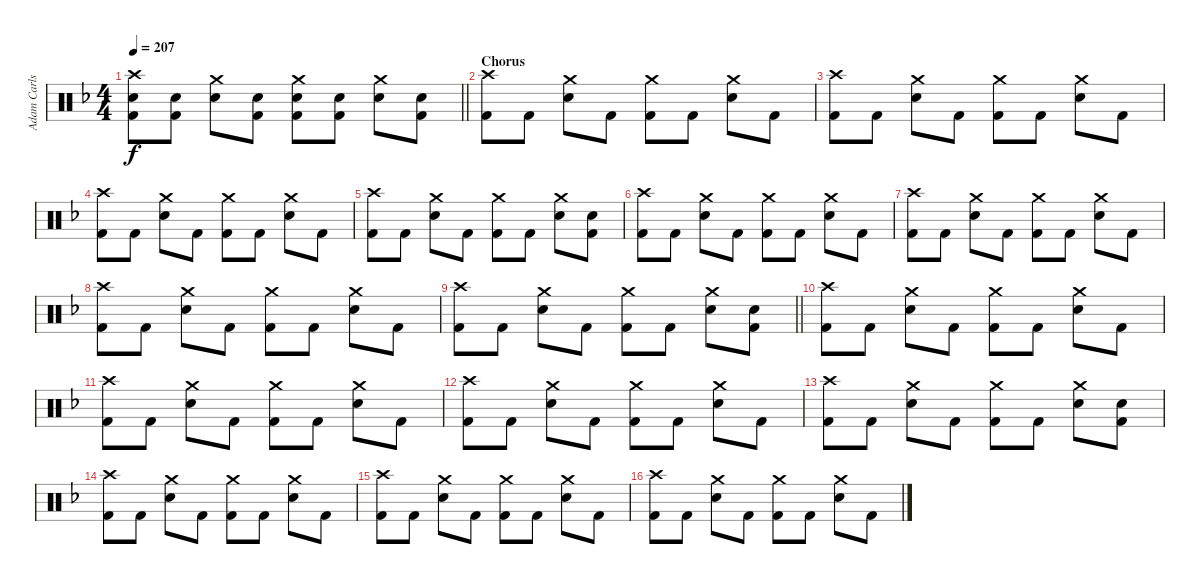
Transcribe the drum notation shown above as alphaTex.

\track ("Adam Carlson" "Adam Carls") {instrument percussion}
\staff {score}
\articulation defaults
\ts (4 4)
\tempo 207
\clef neutral
\barLineRight lightlight
\ks f
("Crash high (hit)" "Electric Snare (hit)" "Kick (hit) 2").8{dy f} ("Electric Snare (hit)" "Kick (hit) 2").8 ("Crash medium (hit)" "Electric Snare (hit)").8 ("Electric Snare (hit)" "Kick (hit) 2").8 ("Crash medium (hit)" "Electric Snare (hit)" "Kick (hit) 2").8 ("Electric Snare (hit)" "Kick (hit) 2").8 ("Crash medium (hit)" "Electric Snare (hit)").8 ("Electric Snare (hit)" "Kick (hit) 2").8 |
\section ("" "Chorus")
("Crash high (hit)" "Kick (hit) 2").8 "Kick (hit) 2".8 ("Crash medium (hit)" "Electric Snare (hit)").8 "Kick (hit) 2".8 ("Crash medium (hit)" "Kick (hit) 2").8 "Kick (hit) 2".8 ("Crash medium (hit)" "Electric Snare (hit)").8 "Kick (hit) 2".8 |
("Crash high (hit)" "Kick (hit) 2").8 "Kick (hit) 2".8 ("Crash medium (hit)" "Electric Snare (hit)").8 "Kick (hit) 2".8 ("Crash medium (hit)" "Kick (hit) 2").8 "Kick (hit) 2".8 ("Crash medium (hit)" "Electric Snare (hit)").8 "Kick (hit) 2".8 |
("Crash high (hit)" "Kick (hit) 2").8 "Kick (hit) 2".8 ("Crash medium (hit)" "Electric Snare (hit)").8 "Kick (hit) 2".8 ("Crash medium (hit)" "Kick (hit) 2").8 "Kick (hit) 2".8 ("Crash medium (hit)" "Electric Snare (hit)").8 "Kick (hit) 2".8 |
("Crash high (hit)" "Kick (hit) 2").8 "Kick (hit) 2".8 ("Crash medium (hit)" "Electric Snare (hit)").8 "Kick (hit) 2".8 ("Crash medium (hit)" "Kick (hit) 2").8 "Kick (hit) 2".8 ("Crash medium (hit)" "Electric Snare (hit)").8 ("Electric Snare (hit)" "Kick (hit) 2").8 |
("Crash high (hit)" "Kick (hit) 2").8 "Kick (hit) 2".8 ("Crash medium (hit)" "Electric Snare (hit)").8 "Kick (hit) 2".8 ("Crash medium (hit)" "Kick (hit) 2").8 "Kick (hit) 2".8 ("Crash medium (hit)" "Electric Snare (hit)").8 "Kick (hit) 2".8 |
("Crash high (hit)" "Kick (hit) 2").8 "Kick (hit) 2".8 ("Crash medium (hit)" "Electric Snare (hit)").8 "Kick (hit) 2".8 ("Crash medium (hit)" "Kick (hit) 2").8 "Kick (hit) 2".8 ("Crash medium (hit)" "Electric Snare (hit)").8 "Kick (hit) 2".8 |
("Crash high (hit)" "Kick (hit) 2").8 "Kick (hit) 2".8 ("Crash medium (hit)" "Electric Snare (hit)").8 "Kick (hit) 2".8 ("Crash medium (hit)" "Kick (hit) 2").8 "Kick (hit) 2".8 ("Crash medium (hit)" "Electric Snare (hit)").8 "Kick (hit) 2".8 |
\barLineRight lightlight
("Crash high (hit)" "Kick (hit) 2").8 "Kick (hit) 2".8 ("Crash medium (hit)" "Electric Snare (hit)").8 "Kick (hit) 2".8 ("Crash medium (hit)" "Kick (hit) 2").8 "Kick (hit) 2".8 ("Crash medium (hit)" "Electric Snare (hit)").8 ("Electric Snare (hit)" "Kick (hit) 2").8 |
("Crash high (hit)" "Kick (hit) 2").8 "Kick (hit) 2".8 ("Crash medium (hit)" "Electric Snare (hit)").8 "Kick (hit) 2".8 ("Crash medium (hit)" "Kick (hit) 2").8 "Kick (hit) 2".8 ("Crash medium (hit)" "Electric Snare (hit)").8 "Kick (hit) 2".8 |
("Crash high (hit)" "Kick (hit) 2").8 "Kick (hit) 2".8 ("Crash medium (hit)" "Electric Snare (hit)").8 "Kick (hit) 2".8 ("Crash medium (hit)" "Kick (hit) 2").8 "Kick (hit) 2".8 ("Crash medium (hit)" "Electric Snare (hit)").8 "Kick (hit) 2".8 |
("Crash high (hit)" "Kick (hit) 2").8 "Kick (hit) 2".8 ("Crash medium (hit)" "Electric Snare (hit)").8 "Kick (hit) 2".8 ("Crash medium (hit)" "Kick (hit) 2").8 "Kick (hit) 2".8 ("Crash medium (hit)" "Electric Snare (hit)").8 "Kick (hit) 2".8 |
("Crash high (hit)" "Kick (hit) 2").8 "Kick (hit) 2".8 ("Crash medium (hit)" "Electric Snare (hit)").8 "Kick (hit) 2".8 ("Crash medium (hit)" "Kick (hit) 2").8 "Kick (hit) 2".8 ("Crash medium (hit)" "Electric Snare (hit)").8 ("Electric Snare (hit)" "Kick (hit) 2").8 |
("Crash high (hit)" "Kick (hit) 2").8 "Kick (hit) 2".8 ("Crash medium (hit)" "Electric Snare (hit)").8 "Kick (hit) 2".8 ("Crash medium (hit)" "Kick (hit) 2").8 "Kick (hit) 2".8 ("Crash medium (hit)" "Electric Snare (hit)").8 "Kick (hit) 2".8 |
("Crash high (hit)" "Kick (hit) 2").8 "Kick (hit) 2".8 ("Crash medium (hit)" "Electric Snare (hit)").8 "Kick (hit) 2".8 ("Crash medium (hit)" "Kick (hit) 2").8 "Kick (hit) 2".8 ("Crash medium (hit)" "Electric Snare (hit)").8 "Kick (hit) 2".8 |
("Crash high (hit)" "Kick (hit) 2").8 "Kick (hit) 2".8 ("Crash medium (hit)" "Electric Snare (hit)").8 "Kick (hit) 2".8 ("Crash medium (hit)" "Kick (hit) 2").8 "Kick (hit) 2".8 ("Crash medium (hit)" "Electric Snare (hit)").8 "Kick (hit) 2".8
